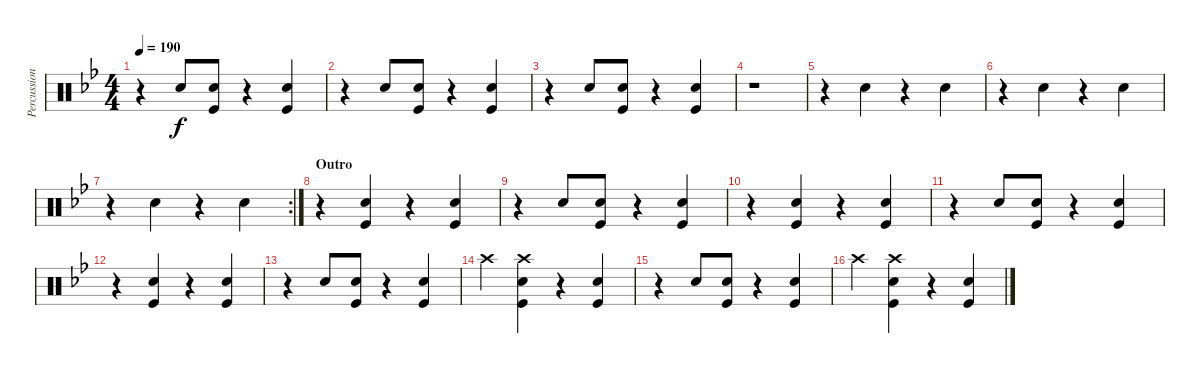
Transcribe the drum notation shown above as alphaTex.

\track ("Percussion" "Percussion") {instrument percussion}
\staff {score}
\articulation defaults
\ts (4 4)
\tempo 190
\clef neutral
\ks bb
r.4{dy f} "Snare (hit) 2".8 ("Kick (hit)" "Snare (hit) 2").8 r.4 ("Kick (hit)" "Snare (hit) 2").4 |
r.4 "Snare (hit) 2".8 ("Kick (hit)" "Snare (hit) 2").8 r.4 ("Kick (hit)" "Snare (hit) 2").4 |
r.4 "Snare (hit) 2".8 ("Kick (hit)" "Snare (hit) 2").8 r.4 ("Kick (hit)" "Snare (hit) 2").4 |
r.1 |
r.4 "Hand Clap (hit)".4 r.4 "Hand Clap (hit)".4 |
r.4 "Hand Clap (hit)".4 r.4 "Hand Clap (hit)".4 |
\rc 2
r.4 "Hand Clap (hit)".4 r.4 "Hand Clap (hit)".4 |
\section ("" "Outro")
r.4 ("Kick (hit)" "Snare (hit) 2").4 r.4 ("Kick (hit)" "Snare (hit) 2").4 |
r.4 "Snare (hit) 2".8 ("Kick (hit)" "Snare (hit) 2").8 r.4 ("Kick (hit)" "Snare (hit) 2").4 |
r.4 ("Kick (hit)" "Snare (hit) 2").4 r.4 ("Kick (hit)" "Snare (hit) 2").4 |
r.4 "Snare (hit) 2".8 ("Kick (hit)" "Snare (hit) 2").8 r.4 ("Kick (hit)" "Snare (hit) 2").4 |
r.4 ("Kick (hit)" "Snare (hit) 2").4 r.4 ("Kick (hit)" "Snare (hit) 2").4 |
r.4 "Snare (hit) 2".8 ("Kick (hit)" "Snare (hit) 2").8 r.4 ("Kick (hit)" "Snare (hit) 2").4 |
"Crash high (hit)".4 ("Kick (hit)" "Snare (hit) 2" "Crash high (hit)").4 r.4 ("Kick (hit)" "Snare (hit) 2").4 |
r.4 "Snare (hit) 2".8 ("Kick (hit)" "Snare (hit) 2").8 r.4 ("Kick (hit)" "Snare (hit) 2").4 |
"Crash high (hit)".4 ("Kick (hit)" "Snare (hit) 2" "Crash high (hit)").4 r.4 ("Kick (hit)" "Snare (hit) 2").4
